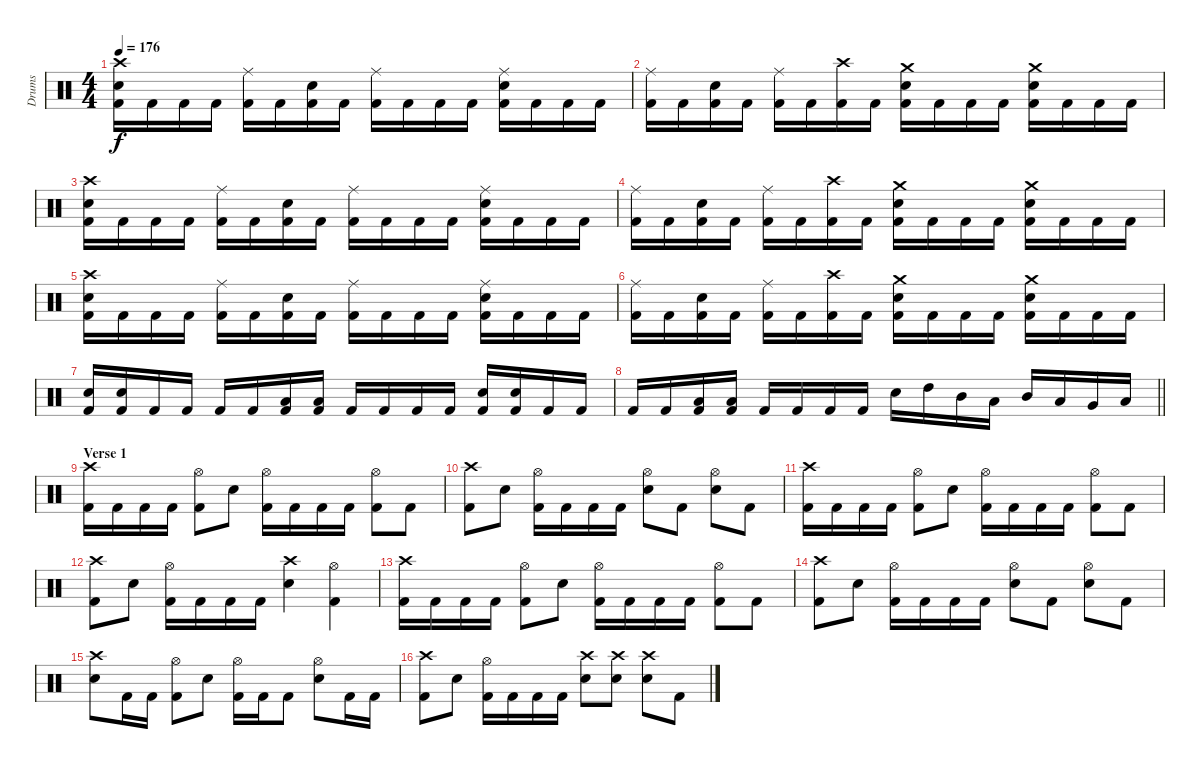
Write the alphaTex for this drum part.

\track ("Drums" "Drums") {instrument percussion}
\staff {score}
\articulation defaults
\ts (4 4)
\tempo 176
\clef neutral
\ks c
("Crash high (hit)" "Snare (hit) 2" "Kick (hit) 2").16{dy f} "Kick (hit) 2".16 "Kick (hit) 2".16 "Kick (hit) 2".16 ("Ride (middle)" "Kick (hit) 2").16 "Kick (hit) 2".16 ("Snare (hit) 2" "Kick (hit) 2").16 "Kick (hit) 2".16 ("Ride (middle)" "Kick (hit) 2").16 "Kick (hit) 2".16 "Kick (hit) 2".16 "Kick (hit) 2".16 ("Ride (middle)" "Snare (hit) 2" "Kick (hit) 2").16 "Kick (hit) 2".16 "Kick (hit) 2".16 "Kick (hit) 2".16 |
("Ride (middle)" "Kick (hit) 2").16 "Kick (hit) 2".16 ("Snare (hit) 2" "Kick (hit) 2").16 "Kick (hit) 2".16 ("Ride (middle)" "Kick (hit) 2").16 "Kick (hit) 2".16 ("Crash high (hit)" "Kick (hit) 2").16 "Kick (hit) 2".16 ("Crash medium (hit)" "Snare (hit) 2" "Kick (hit) 2").16 "Kick (hit) 2".16 "Kick (hit) 2".16 "Kick (hit) 2".16 ("Crash medium (hit)" "Snare (hit) 2" "Kick (hit) 2").16 "Kick (hit) 2".16 "Kick (hit) 2".16 "Kick (hit) 2".16 |
("Crash high (hit)" "Snare (hit) 2" "Kick (hit) 2").16 "Kick (hit) 2".16 "Kick (hit) 2".16 "Kick (hit) 2".16 ("Ride (middle)" "Kick (hit) 2").16 "Kick (hit) 2".16 ("Snare (hit) 2" "Kick (hit) 2").16 "Kick (hit) 2".16 ("Ride (middle)" "Kick (hit) 2").16 "Kick (hit) 2".16 "Kick (hit) 2".16 "Kick (hit) 2".16 ("Ride (middle)" "Snare (hit) 2" "Kick (hit) 2").16 "Kick (hit) 2".16 "Kick (hit) 2".16 "Kick (hit) 2".16 |
("Ride (middle)" "Kick (hit) 2").16 "Kick (hit) 2".16 ("Snare (hit) 2" "Kick (hit) 2").16 "Kick (hit) 2".16 ("Ride (middle)" "Kick (hit) 2").16 "Kick (hit) 2".16 ("Crash high (hit)" "Kick (hit) 2").16 "Kick (hit) 2".16 ("Crash medium (hit)" "Snare (hit) 2" "Kick (hit) 2").16 "Kick (hit) 2".16 "Kick (hit) 2".16 "Kick (hit) 2".16 ("Crash medium (hit)" "Snare (hit) 2" "Kick (hit) 2").16 "Kick (hit) 2".16 "Kick (hit) 2".16 "Kick (hit) 2".16 |
("Crash high (hit)" "Snare (hit) 2" "Kick (hit) 2").16 "Kick (hit) 2".16 "Kick (hit) 2".16 "Kick (hit) 2".16 ("Ride (middle)" "Kick (hit) 2").16 "Kick (hit) 2".16 ("Snare (hit) 2" "Kick (hit) 2").16 "Kick (hit) 2".16 ("Ride (middle)" "Kick (hit) 2").16 "Kick (hit) 2".16 "Kick (hit) 2".16 "Kick (hit) 2".16 ("Ride (middle)" "Snare (hit) 2" "Kick (hit) 2").16 "Kick (hit) 2".16 "Kick (hit) 2".16 "Kick (hit) 2".16 |
("Ride (middle)" "Kick (hit) 2").16 "Kick (hit) 2".16 ("Snare (hit) 2" "Kick (hit) 2").16 "Kick (hit) 2".16 ("Ride (middle)" "Kick (hit) 2").16 "Kick (hit) 2".16 ("Crash high (hit)" "Kick (hit) 2").16 "Kick (hit) 2".16 ("Crash medium (hit)" "Snare (hit) 2" "Kick (hit) 2").16 "Kick (hit) 2".16 "Kick (hit) 2".16 "Kick (hit) 2".16 ("Crash medium (hit)" "Snare (hit) 2" "Kick (hit) 2").16 "Kick (hit) 2".16 "Kick (hit) 2".16 "Kick (hit) 2".16 |
("Snare (hit) 2" "Kick (hit) 2").16 ("Snare (hit) 2" "Kick (hit) 2").16 "Kick (hit) 2".16 "Kick (hit) 2".16 "Kick (hit) 2".16 "Kick (hit) 2".16 ("Low Tom (hit)" "Kick (hit) 2").16 ("Low Tom (hit)" "Kick (hit) 2").16 "Kick (hit) 2".16 "Kick (hit) 2".16 "Kick (hit) 2".16 "Kick (hit) 2".16 ("Snare (hit) 2" "Kick (hit) 2").16 ("Snare (hit) 2" "Kick (hit) 2").16 "Kick (hit) 2".16 "Kick (hit) 2".16 |
\barLineRight lightlight "Kick (hit) 2".16 "Kick (hit) 2".16
("Low Tom (hit)" "Kick (hit) 2").16 ("Low Tom (hit)" "Kick (hit) 2").16 "Kick (hit) 2".16 "Kick (hit) 2".16 "Kick (hit) 2".16 "Kick (hit) 2".16 "Snare (hit) 2".16 "High Tom (hit)".16 "Mid Tom (hit)".16 "Low Tom (hit)".16 "Mid Tom (hit)".16 "Low Tom (hit)".16 "Very Low Tom (hit)".16 "Low Floor Tom (hit)".16 |
\section ("" "Verse 1")
("Crash high (hit)" "Kick (hit) 2").16 "Kick (hit) 2".16 "Kick (hit) 2".16 "Kick (hit) 2".16 ("Hi-Hat (open)" "Kick (hit) 2").8 "Snare (hit) 2".8 ("Hi-Hat (open)" "Kick (hit) 2").16 "Kick (hit) 2".16 "Kick (hit) 2".16 "Kick (hit) 2".16 ("Hi-Hat (open)" "Kick (hit) 2").8 "Kick (hit) 2".8 |
("Crash high (hit)" "Kick (hit) 2").8 "Snare (hit) 2".8 ("Hi-Hat (open)" "Kick (hit) 2").16 "Kick (hit) 2".16 "Kick (hit) 2".16 "Kick (hit) 2".16 ("Hi-Hat (open)" "Snare (hit) 2").8 "Kick (hit) 2".8 ("Hi-Hat (open)" "Snare (hit) 2").8 "Kick (hit) 2".8 |
("Crash high (hit)" "Kick (hit) 2").16 "Kick (hit) 2".16 "Kick (hit) 2".16 "Kick (hit) 2".16 ("Hi-Hat (open)" "Kick (hit) 2").8 "Snare (hit) 2".8 ("Hi-Hat (open)" "Kick (hit) 2").16 "Kick (hit) 2".16 "Kick (hit) 2".16 "Kick (hit) 2".16 ("Hi-Hat (open)" "Kick (hit) 2").8 "Kick (hit) 2".8 |
("Crash high (hit)" "Kick (hit) 2").8 "Snare (hit) 2".8 ("Hi-Hat (open)" "Kick (hit) 2").16 "Kick (hit) 2".16 "Kick (hit) 2".16 "Kick (hit) 2".16 ("Crash high (hit)" "Snare (hit) 2").4 ("Hi-Hat (open)" "Kick (hit) 2").4 |
("Crash high (hit)" "Kick (hit) 2").16 "Kick (hit) 2".16 "Kick (hit) 2".16 "Kick (hit) 2".16 ("Hi-Hat (open)" "Kick (hit) 2").8 "Snare (hit) 2".8 ("Hi-Hat (open)" "Kick (hit) 2").16 "Kick (hit) 2".16 "Kick (hit) 2".16 "Kick (hit) 2".16 ("Hi-Hat (open)" "Kick (hit) 2").8 "Kick (hit) 2".8 |
("Crash high (hit)" "Kick (hit) 2").8 "Snare (hit) 2".8 ("Hi-Hat (open)" "Kick (hit) 2").16 "Kick (hit) 2".16 "Kick (hit) 2".16 "Kick (hit) 2".16 ("Hi-Hat (open)" "Snare (hit) 2").8 "Kick (hit) 2".8 ("Hi-Hat (open)" "Snare (hit) 2").8 "Kick (hit) 2".8 |
("Crash high (hit)" "Snare (hit) 2").8 "Kick (hit) 2".16 "Kick (hit) 2".16 ("Hi-Hat (open)" "Kick (hit) 2").8 "Snare (hit) 2".8 ("Hi-Hat (open)" "Kick (hit) 2").16 "Kick (hit) 2".16 "Kick (hit) 2".8 ("Hi-Hat (open)" "Snare (hit) 2").8 "Kick (hit) 2".16 "Kick (hit) 2".16 |
("Crash high (hit)" "Kick (hit) 2").8 "Snare (hit) 2".8 ("Hi-Hat (open)" "Kick (hit) 2").16 "Kick (hit) 2".16 "Kick (hit) 2".16 "Kick (hit) 2".16 ("Crash high (hit)" "Snare (hit) 2").8 ("Crash high (hit)" "Snare (hit) 2").8 ("Crash high (hit)" "Snare (hit) 2").8 "Kick (hit) 2".8
